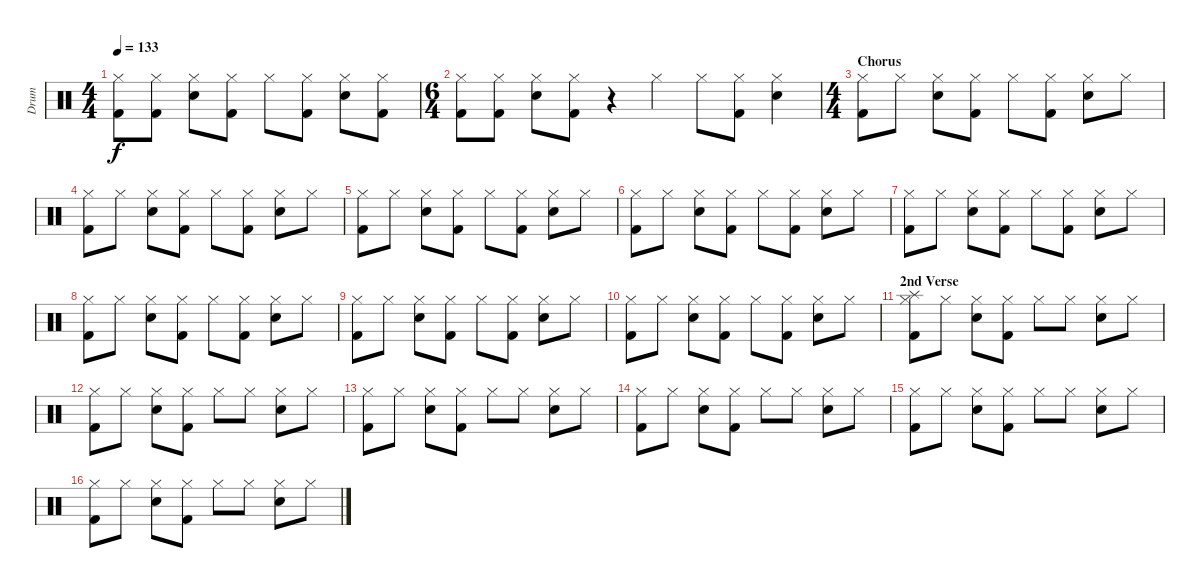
\track ("Drum" "Drum") {instrument percussion}
\staff {score}
\articulation defaults
\ts (4 4)
\tempo 133
\clef neutral
\ks c
("Hi-Hat (closed)" "Kick (hit) 2").8{dy f} ("Hi-Hat (closed)" "Kick (hit) 2").8 ("Snare (hit) 2" "Hi-Hat (closed)").8 ("Hi-Hat (closed)" "Kick (hit) 2").8 "Hi-Hat (closed)".8 ("Hi-Hat (closed)" "Kick (hit) 2").8 ("Snare (hit) 2" "Hi-Hat (closed)").8 ("Hi-Hat (closed)" "Kick (hit) 2").8 |
\ts (6 4)
("Hi-Hat (closed)" "Kick (hit) 2").8 ("Hi-Hat (closed)" "Kick (hit) 2").8 ("Snare (hit) 2" "Hi-Hat (closed)").8 ("Hi-Hat (closed)" "Kick (hit) 2").8 r.4 "Hi-Hat (closed)".4 "Hi-Hat (closed)".8 ("Hi-Hat (closed)" "Kick (hit) 2").8 ("Snare (hit) 2" "Hi-Hat (closed)").4 |
\ts (4 4)
\section ("" "Chorus")
("Hi-Hat (closed)" "Kick (hit) 2").8 "Hi-Hat (closed)".8 ("Snare (hit) 2" "Hi-Hat (closed)").8 ("Hi-Hat (closed)" "Kick (hit) 2").8 "Hi-Hat (closed)".8 ("Hi-Hat (closed)" "Kick (hit) 2").8 ("Snare (hit) 2" "Hi-Hat (closed)").8 "Hi-Hat (closed)".8 |
("Hi-Hat (closed)" "Kick (hit) 2").8 "Hi-Hat (closed)".8 ("Snare (hit) 2" "Hi-Hat (closed)").8 ("Hi-Hat (closed)" "Kick (hit) 2").8 "Hi-Hat (closed)".8 ("Hi-Hat (closed)" "Kick (hit) 2").8 ("Snare (hit) 2" "Hi-Hat (closed)").8 "Hi-Hat (closed)".8 |
("Hi-Hat (closed)" "Kick (hit) 2").8 "Hi-Hat (closed)".8 ("Snare (hit) 2" "Hi-Hat (closed)").8 ("Hi-Hat (closed)" "Kick (hit) 2").8 "Hi-Hat (closed)".8 ("Hi-Hat (closed)" "Kick (hit) 2").8 ("Snare (hit) 2" "Hi-Hat (closed)").8 "Hi-Hat (closed)".8 |
("Hi-Hat (closed)" "Kick (hit) 2").8 "Hi-Hat (closed)".8 ("Snare (hit) 2" "Hi-Hat (closed)").8 ("Hi-Hat (closed)" "Kick (hit) 2").8 "Hi-Hat (closed)".8 ("Hi-Hat (closed)" "Kick (hit) 2").8 ("Snare (hit) 2" "Hi-Hat (closed)").8 "Hi-Hat (closed)".8 |
("Hi-Hat (closed)" "Kick (hit) 2").8 "Hi-Hat (closed)".8 ("Snare (hit) 2" "Hi-Hat (closed)").8 ("Hi-Hat (closed)" "Kick (hit) 2").8 "Hi-Hat (closed)".8 ("Hi-Hat (closed)" "Kick (hit) 2").8 ("Snare (hit) 2" "Hi-Hat (closed)").8 "Hi-Hat (closed)".8 |
("Hi-Hat (closed)" "Kick (hit) 2").8 "Hi-Hat (closed)".8 ("Snare (hit) 2" "Hi-Hat (closed)").8 ("Hi-Hat (closed)" "Kick (hit) 2").8 "Hi-Hat (closed)".8 ("Hi-Hat (closed)" "Kick (hit) 2").8 ("Snare (hit) 2" "Hi-Hat (closed)").8 "Hi-Hat (closed)".8 |
("Hi-Hat (closed)" "Kick (hit) 2").8 "Hi-Hat (closed)".8 ("Snare (hit) 2" "Hi-Hat (closed)").8 ("Hi-Hat (closed)" "Kick (hit) 2").8 "Hi-Hat (closed)".8 ("Hi-Hat (closed)" "Kick (hit) 2").8 ("Snare (hit) 2" "Hi-Hat (closed)").8 "Hi-Hat (closed)".8 |
("Hi-Hat (closed)" "Kick (hit) 2").8 "Hi-Hat (closed)".8 ("Snare (hit) 2" "Hi-Hat (closed)").8 ("Hi-Hat (closed)" "Kick (hit) 2").8 "Hi-Hat (closed)".8 ("Hi-Hat (closed)" "Kick (hit) 2").8 ("Snare (hit) 2" "Hi-Hat (closed)").8 "Hi-Hat (closed)".8 |
\section ("" "2nd Verse")
("Splash (hit)" "Hi-Hat (closed)" "Kick (hit) 2").8 "Hi-Hat (closed)".8 ("Snare (hit) 2" "Hi-Hat (closed)").8 ("Hi-Hat (closed)" "Kick (hit) 2").8 "Hi-Hat (closed)".8 "Hi-Hat (closed)".8 ("Snare (hit) 2" "Hi-Hat (closed)").8 "Hi-Hat (closed)".8 |
("Hi-Hat (closed)" "Kick (hit) 2").8 "Hi-Hat (closed)".8 ("Snare (hit) 2" "Hi-Hat (closed)").8 ("Hi-Hat (closed)" "Kick (hit) 2").8 "Hi-Hat (closed)".8 "Hi-Hat (closed)".8 ("Snare (hit) 2" "Hi-Hat (closed)").8 "Hi-Hat (closed)".8 |
("Hi-Hat (closed)" "Kick (hit) 2").8 "Hi-Hat (closed)".8 ("Snare (hit) 2" "Hi-Hat (closed)").8 ("Hi-Hat (closed)" "Kick (hit) 2").8 "Hi-Hat (closed)".8 "Hi-Hat (closed)".8 ("Snare (hit) 2" "Hi-Hat (closed)").8 "Hi-Hat (closed)".8 |
("Hi-Hat (closed)" "Kick (hit) 2").8 "Hi-Hat (closed)".8 ("Snare (hit) 2" "Hi-Hat (closed)").8 ("Hi-Hat (closed)" "Kick (hit) 2").8 "Hi-Hat (closed)".8 "Hi-Hat (closed)".8 ("Snare (hit) 2" "Hi-Hat (closed)").8 "Hi-Hat (closed)".8 |
("Hi-Hat (closed)" "Kick (hit) 2").8 "Hi-Hat (closed)".8 ("Snare (hit) 2" "Hi-Hat (closed)").8 ("Hi-Hat (closed)" "Kick (hit) 2").8 "Hi-Hat (closed)".8 "Hi-Hat (closed)".8 ("Snare (hit) 2" "Hi-Hat (closed)").8 "Hi-Hat (closed)".8 |
("Hi-Hat (closed)" "Kick (hit) 2").8 "Hi-Hat (closed)".8 ("Snare (hit) 2" "Hi-Hat (closed)").8 ("Hi-Hat (closed)" "Kick (hit) 2").8 "Hi-Hat (closed)".8 "Hi-Hat (closed)".8 ("Snare (hit) 2" "Hi-Hat (closed)").8 "Hi-Hat (closed)".8
